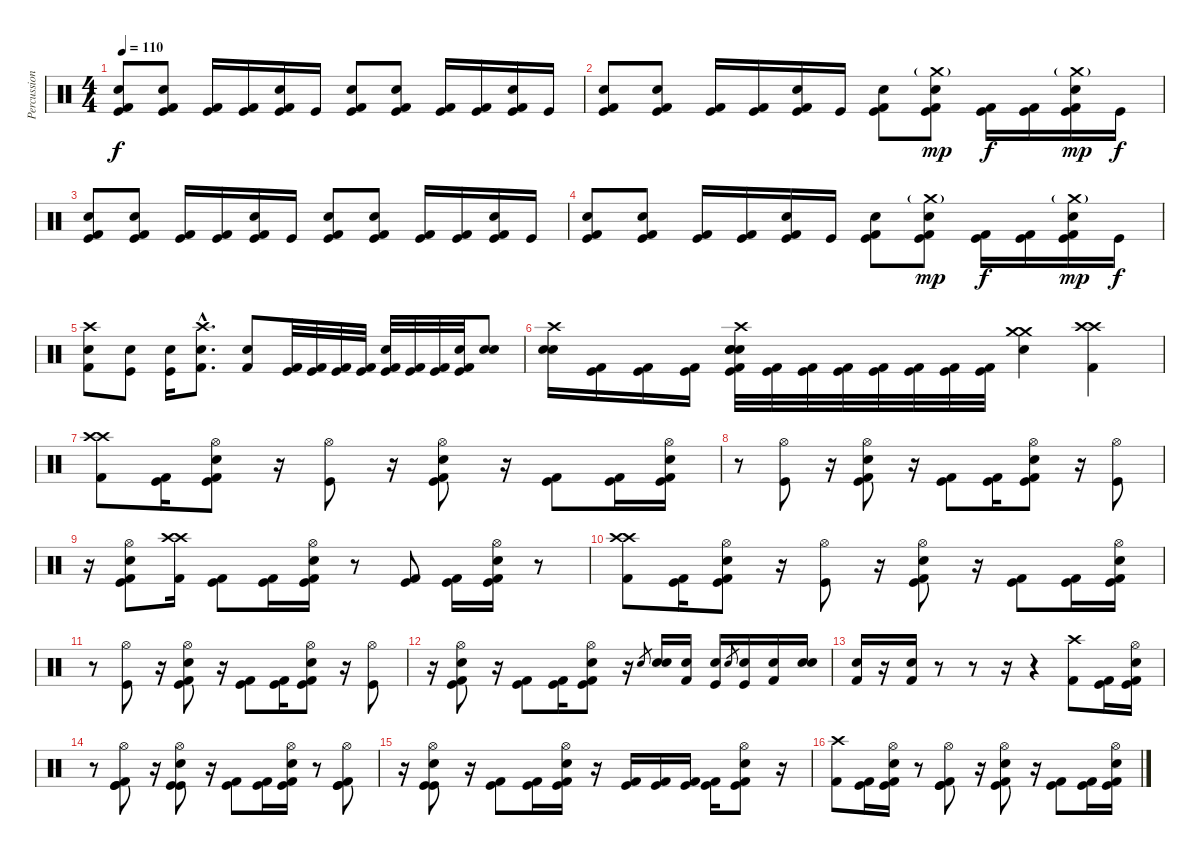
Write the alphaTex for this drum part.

\track ("Percussion" "Percussion") {instrument percussion}
\staff {score}
\articulation defaults
\ts (4 4)
\tempo 110
\clef neutral
\ks c
("Snare (hit) 2" "Kick (hit)" "Kick (hit) 2").8{dy f} ("Electric Snare (hit)" "Kick (hit)" "Kick (hit) 2").8 ("Kick (hit)" "Kick (hit) 2").16 ("Kick (hit)" "Kick (hit) 2").16 ("Electric Snare (hit)" "Kick (hit)" "Kick (hit) 2").16 "Kick (hit)".16 ("Snare (hit) 2" "Kick (hit)" "Kick (hit) 2").8 ("Electric Snare (hit)" "Kick (hit)" "Kick (hit) 2").8 ("Kick (hit)" "Kick (hit) 2").16 ("Kick (hit)" "Kick (hit) 2").16 ("Electric Snare (hit)" "Kick (hit)" "Kick (hit) 2").16 "Kick (hit)".16 |
("Snare (hit) 2" "Kick (hit)" "Kick (hit) 2").8 ("Electric Snare (hit)" "Kick (hit)" "Kick (hit) 2").8 ("Kick (hit)" "Kick (hit) 2").16 ("Kick (hit)" "Kick (hit) 2").16 ("Electric Snare (hit)" "Kick (hit)" "Kick (hit) 2").16 "Kick (hit)".16 ("Snare (hit) 2" "Kick (hit)" "Kick (hit) 2").8 ("Crash medium (hit)"{g} "Electric Snare (hit)" "Kick (hit)" "Kick (hit) 2").8{dy mp} ("Kick (hit)" "Kick (hit) 2").16{dy f} ("Kick (hit)" "Kick (hit) 2").16 ("Crash medium (hit)"{g} "Electric Snare (hit)" "Kick (hit)" "Kick (hit) 2").16{dy mp} "Kick (hit)".16{dy f} |
("Snare (hit) 2" "Kick (hit)" "Kick (hit) 2").8 ("Electric Snare (hit)" "Kick (hit)" "Kick (hit) 2").8 ("Kick (hit)" "Kick (hit) 2").16 ("Kick (hit)" "Kick (hit) 2").16 ("Electric Snare (hit)" "Kick (hit)" "Kick (hit) 2").16 "Kick (hit)".16 ("Snare (hit) 2" "Kick (hit)" "Kick (hit) 2").8 ("Electric Snare (hit)" "Kick (hit)" "Kick (hit) 2").8 ("Kick (hit)" "Kick (hit) 2").16 ("Kick (hit)" "Kick (hit) 2").16 ("Electric Snare (hit)" "Kick (hit)" "Kick (hit) 2").16 "Kick (hit)".16 |
("Snare (hit) 2" "Kick (hit)" "Kick (hit) 2").8 ("Electric Snare (hit)" "Kick (hit)" "Kick (hit) 2").8 ("Kick (hit)" "Kick (hit) 2").16 ("Kick (hit)" "Kick (hit) 2").16 ("Electric Snare (hit)" "Kick (hit)" "Kick (hit) 2").16 "Kick (hit)".16 ("Snare (hit) 2" "Kick (hit)" "Kick (hit) 2").8 ("Crash medium (hit)"{g} "Electric Snare (hit)" "Kick (hit)" "Kick (hit) 2").8{dy mp} ("Kick (hit)" "Kick (hit) 2").16{dy f} ("Kick (hit)" "Kick (hit) 2").16 ("Crash medium (hit)"{g} "Electric Snare (hit)" "Kick (hit)" "Kick (hit) 2").16{dy mp} "Kick (hit)".16{dy f} |
("Crash high (hit)" "Snare (hit) 2" "Kick (hit) 2").8 ("Electric Snare (hit)" "Kick (hit)").8 ("Electric Snare (hit)" "Kick (hit)").16 ("Crash high (hit)"{hac} "Snare (hit) 2"{hac} "Kick (hit) 2"{hac}).8{d} ("Snare (hit) 2" "Kick (hit) 2").8 ("Kick (hit) 2" "Kick (hit)").32 ("Kick (hit) 2" "Kick (hit)").32 ("Kick (hit) 2" "Kick (hit)").32 ("Kick (hit) 2" "Kick (hit)").32 ("Electric Snare (hit)" "Kick (hit) 2" "Kick (hit)").32 ("Kick (hit) 2" "Kick (hit)").32 ("Kick (hit) 2" "Kick (hit)").32 ("Snare (hit) 2" "Kick (hit) 2" "Kick (hit)").32 ("Electric Snare (hit)" "Snare (hit) 2").8 |
("Crash high (hit)" "Electric Snare (hit)" "Snare (hit) 2").16 ("Kick (hit) 2" "Kick (hit)").16 ("Kick (hit) 2" "Kick (hit)").16 ("Kick (hit) 2" "Kick (hit)").16 ("Crash high (hit)" "Electric Snare (hit)" "Electric Snare (hit)" "Snare (hit) 2" "Kick (hit) 2" "Kick (hit)").32 ("Kick (hit) 2" "Kick (hit)").32 ("Kick (hit) 2" "Kick (hit)").32 ("Kick (hit) 2" "Kick (hit)").32 ("Kick (hit) 2" "Kick (hit)").32 ("Kick (hit) 2" "Kick (hit)").32 ("Kick (hit) 2" "Kick (hit)").32 ("Kick (hit) 2" "Kick (hit)").32 ("Crash medium (hit)" "Crash medium (hit)" "Snare (hit) 2").4 ("Crash high (hit)" "Crash high (hit)" "Kick (hit) 2").4 |
("Crash high (hit)" "Crash high (hit)" "Kick (hit) 2").8 ("Kick (hit) 2" "Kick (hit)").16 ("Hi-Hat (open)" "Electric Snare (hit)" "Kick (hit) 2" "Kick (hit)").8 r.16 ("Hi-Hat (open)" "Kick (hit)").8 r.16 ("Hi-Hat (open)" "Electric Snare (hit)" "Kick (hit) 2" "Kick (hit)").8 r.16 ("Kick (hit) 2" "Kick (hit)").8 ("Kick (hit) 2" "Kick (hit)").16 ("Hi-Hat (open)" "Electric Snare (hit)" "Kick (hit) 2" "Kick (hit)").16 |
r.8 ("Hi-Hat (open)" "Kick (hit)").8 r.16 ("Hi-Hat (open)" "Electric Snare (hit)" "Kick (hit) 2" "Kick (hit)").8 r.16 ("Kick (hit) 2" "Kick (hit)").8 ("Kick (hit) 2" "Kick (hit)").16 ("Hi-Hat (open)" "Electric Snare (hit)" "Kick (hit) 2" "Kick (hit)").8 r.16 ("Hi-Hat (open)" "Kick (hit)").8 |
r.16 ("Hi-Hat (open)" "Electric Snare (hit)" "Kick (hit) 2" "Kick (hit)").8 ("Crash high (hit)" "Crash high (hit)" "Kick (hit) 2").16 ("Kick (hit) 2" "Kick (hit)").8 ("Kick (hit) 2" "Kick (hit)").16 ("Hi-Hat (open)" "Electric Snare (hit)" "Kick (hit) 2" "Kick (hit)").16 r.8 ("Kick (hit) 2" "Kick (hit)").8 ("Kick (hit) 2" "Kick (hit)").16 ("Hi-Hat (open)" "Electric Snare (hit)" "Kick (hit) 2" "Kick (hit)").16 r.8 |
("Crash high (hit)" "Crash high (hit)" "Kick (hit) 2").8 ("Kick (hit) 2" "Kick (hit)").16 ("Hi-Hat (open)" "Electric Snare (hit)" "Kick (hit) 2" "Kick (hit)").8 r.16 ("Hi-Hat (open)" "Kick (hit)").8 r.16 ("Hi-Hat (open)" "Electric Snare (hit)" "Kick (hit) 2" "Kick (hit)").8 r.16 ("Kick (hit) 2" "Kick (hit)").8 ("Kick (hit) 2" "Kick (hit)").16 ("Hi-Hat (open)" "Electric Snare (hit)" "Kick (hit) 2" "Kick (hit)").16 |
r.8 ("Hi-Hat (open)" "Kick (hit)").8 r.16 ("Hi-Hat (open)" "Electric Snare (hit)" "Kick (hit) 2" "Kick (hit)").8 r.16 ("Kick (hit) 2" "Kick (hit)").8 ("Kick (hit) 2" "Kick (hit)").16 ("Hi-Hat (open)" "Electric Snare (hit)" "Kick (hit) 2" "Kick (hit)").8 r.16 ("Hi-Hat (open)" "Kick (hit)").8 |
r.16 ("Hi-Hat (open)" "Electric Snare (hit)" "Kick (hit) 2" "Kick (hit)").8 r.16 ("Kick (hit) 2" "Kick (hit)").8 ("Kick (hit) 2" "Kick (hit)").16 ("Hi-Hat (open)" "Electric Snare (hit)" "Kick (hit) 2" "Kick (hit)").8 r.16 "Electric Snare (hit)".8{gr} ("Electric Snare (hit)" "Snare (hit) 2").16 ("Electric Snare (hit)" "Kick (hit) 2").16 ("Electric Snare (hit)" "Kick (hit)").16 "Electric Snare (hit)".8{gr} ("Electric Snare (hit)" "Kick (hit)").16 ("Electric Snare (hit)" "Kick (hit) 2").16 ("Electric Snare (hit)" "Snare (hit) 2").16 |
("Electric Snare (hit)" "Kick (hit) 2").16 r.16 ("Electric Snare (hit)" "Kick (hit) 2").16 r.8 r.8 r.16 r.4 ("Crash high (hit)" "Kick (hit) 2").8 ("Kick (hit)" "Kick (hit) 2").16 ("Hi-Hat (open)" "Electric Snare (hit)" "Kick (hit)" "Kick (hit) 2").16 |
r.8 ("Hi-Hat (open)" "Kick (hit) 2" "Kick (hit)" "Kick (hit)").8 r.16 ("Hi-Hat (open)" "Electric Snare (hit)" "Kick (hit)" "Kick (hit)").8 r.16 ("Kick (hit)" "Kick (hit) 2").8 ("Kick (hit)" "Kick (hit) 2").16 ("Hi-Hat (open)" "Electric Snare (hit)" "Kick (hit)" "Kick (hit) 2").16 r.8 ("Hi-Hat (open)" "Kick (hit) 2" "Kick (hit)" "Kick (hit)").8 |
r.16 ("Hi-Hat (open)" "Electric Snare (hit)" "Kick (hit)" "Kick (hit)").8 r.16 ("Kick (hit)" "Kick (hit) 2").8 ("Kick (hit)" "Kick (hit) 2").16 ("Hi-Hat (open)" "Electric Snare (hit)" "Kick (hit)" "Kick (hit) 2").16 r.16 ("Kick (hit)" "Kick (hit) 2").16 ("Kick (hit)" "Kick (hit) 2").16 ("Kick (hit)" "Kick (hit) 2").16 ("Kick (hit)" "Kick (hit) 2").16 ("Hi-Hat (open)" "Electric Snare (hit)" "Kick (hit)" "Kick (hit) 2").8 r.16 |
("Crash high (hit)" "Kick (hit) 2").8 ("Kick (hit)" "Kick (hit) 2").16 ("Hi-Hat (open)" "Electric Snare (hit)" "Kick (hit)" "Kick (hit) 2").16 r.8 ("Hi-Hat (open)" "Kick (hit) 2" "Kick (hit)" "Kick (hit)").8 r.16 ("Hi-Hat (open)" "Electric Snare (hit)" "Kick (hit)" "Kick (hit) 2").8 r.16 ("Kick (hit)" "Kick (hit) 2").8 ("Kick (hit)" "Kick (hit) 2").16 ("Hi-Hat (open)" "Electric Snare (hit)" "Kick (hit)" "Kick (hit) 2").16
